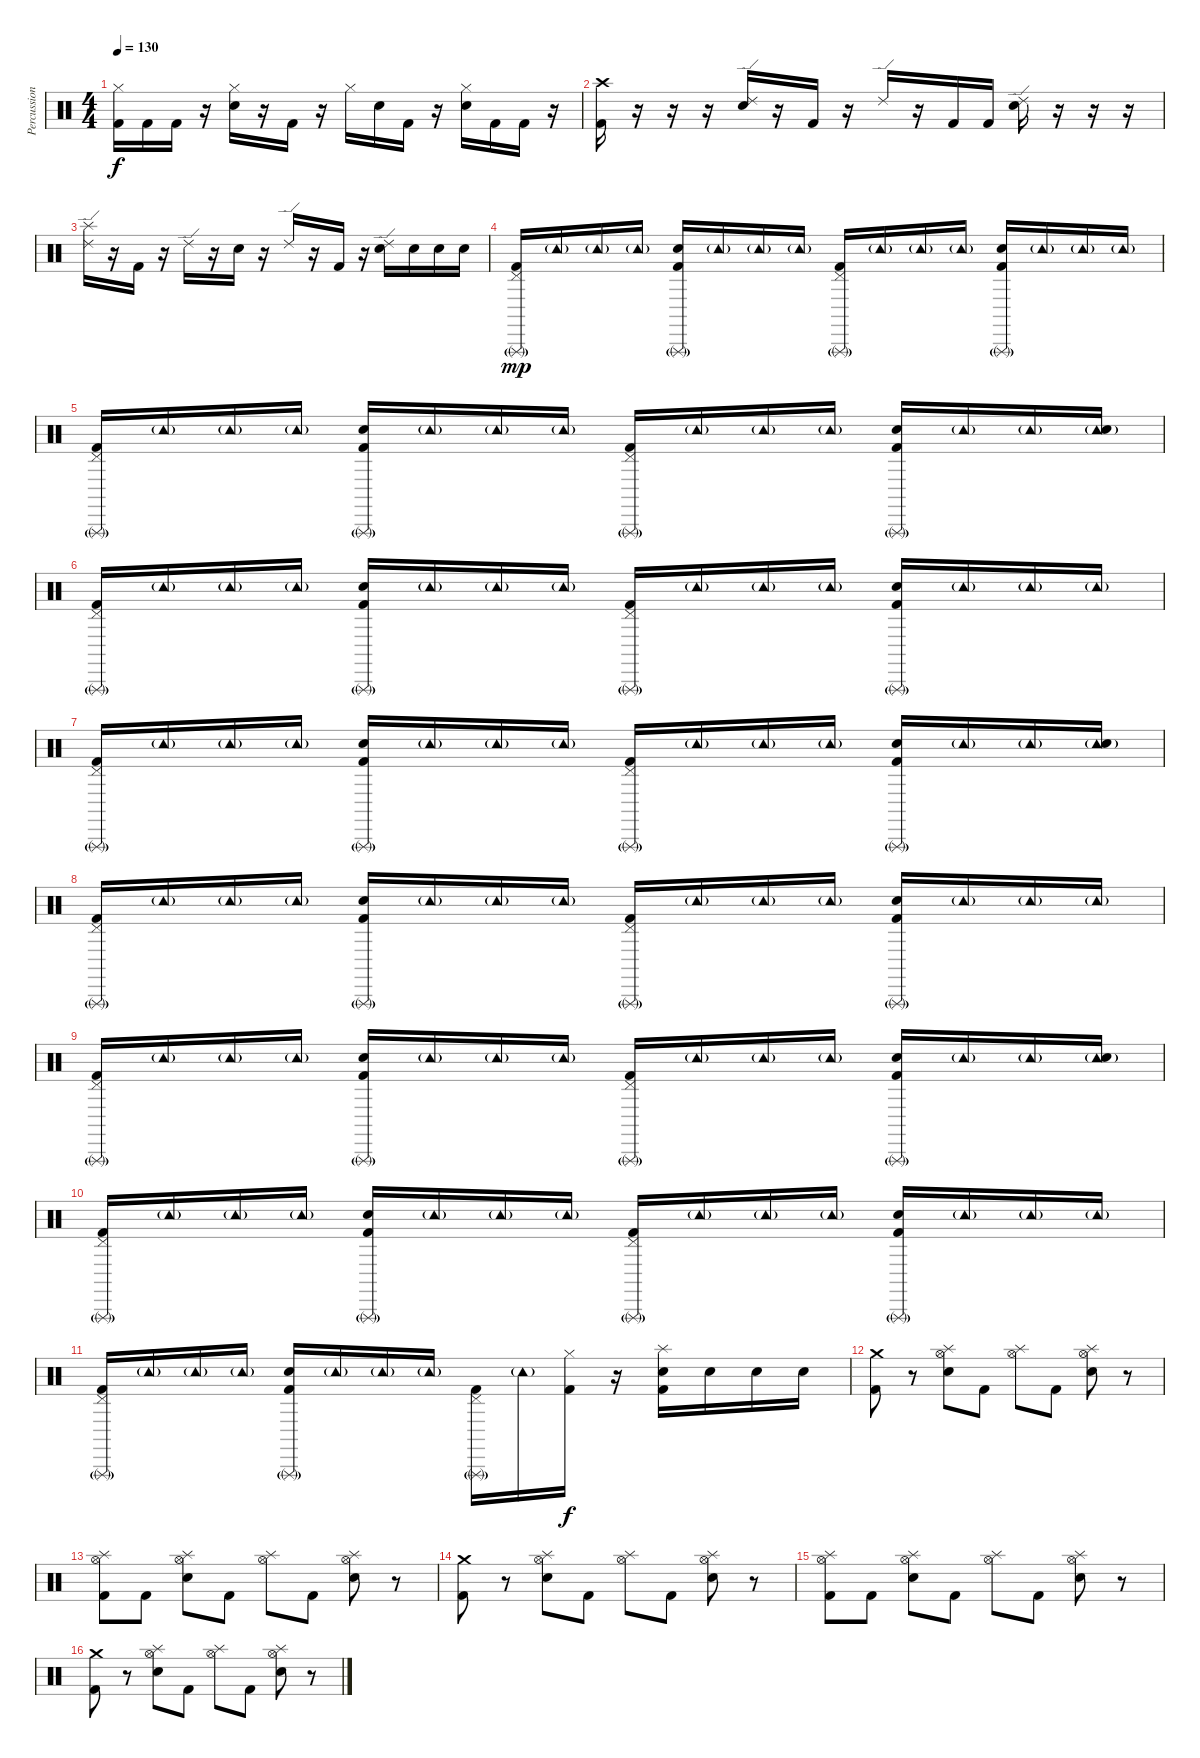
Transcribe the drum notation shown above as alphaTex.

\track ("Percussion" "Percussion") {instrument percussion}
\staff {score}
\articulation defaults
\ts (4 4)
\tempo 130
\clef neutral
\ks c
("Hi-Hat (closed)" "Kick (hit) 2").16{dy f} "Kick (hit) 2".16 "Kick (hit) 2".16 r.16 ("Hi-Hat (closed)" "Electric Snare (hit)").16 r.16 "Kick (hit) 2".16 r.16 "Hi-Hat (closed)".16 "Electric Snare (hit)".16 "Kick (hit) 2".16 r.16 ("Hi-Hat (closed)" "Electric Snare (hit)").16 "Kick (hit) 2".16 "Kick (hit) 2".16 r.16 |
("Crash high (hit)" "Kick (hit) 2").16 r.16 r.16 r.16 ("Ride (edge) 2" "Electric Snare (hit)").16 r.16 "Kick (hit) 2".16 r.16 "Ride (edge) 2".16 r.16 "Kick (hit) 2".16 "Kick (hit) 2".16 ("Ride (edge) 2" "Electric Snare (hit)").16 r.16 r.16 r.16 |
("Splash (hit)" "Ride (edge) 2").16 r.16 "Kick (hit) 2".16 r.16 "Ride (edge) 2".16 r.16 "Electric Snare (hit)".16 r.16 "Ride (edge) 2".16 r.16 "Kick (hit) 2".16 r.16 ("Ride (edge) 2" "Electric Snare (hit)").16 "Electric Snare (hit)".16 "Electric Snare (hit)".16 "Electric Snare (hit)".16 |
("Triangle (rnute)"{g} "Pedal Hi-Hat (hit)" "Kick (hit) 2").16{dy mp} "Tambourine (hit)"{g}.16 "Tambourine (hit)"{g}.16 "Tambourine (hit)"{g}.16 ("Triangle (rnute)"{g} "Electric Snare (hit)" "Kick (hit) 2").16 "Tambourine (hit)"{g}.16 "Tambourine (hit)"{g}.16 "Tambourine (hit)"{g}.16 ("Triangle (rnute)"{g} "Pedal Hi-Hat (hit)" "Kick (hit) 2").16 "Tambourine (hit)"{g}.16 "Tambourine (hit)"{g}.16 "Tambourine (hit)"{g}.16 ("Triangle (rnute)"{g} "Electric Snare (hit)" "Kick (hit) 2").16 "Tambourine (hit)"{g}.16 "Tambourine (hit)"{g}.16 "Tambourine (hit)"{g}.16 |
("Triangle (rnute)"{g} "Pedal Hi-Hat (hit)" "Kick (hit) 2").16 "Tambourine (hit)"{g}.16 "Tambourine (hit)"{g}.16 "Tambourine (hit)"{g}.16 ("Triangle (rnute)"{g} "Electric Snare (hit)" "Kick (hit) 2").16 "Tambourine (hit)"{g}.16 "Tambourine (hit)"{g}.16 "Tambourine (hit)"{g}.16 ("Triangle (rnute)"{g} "Pedal Hi-Hat (hit)" "Kick (hit) 2").16 "Tambourine (hit)"{g}.16 "Tambourine (hit)"{g}.16 "Tambourine (hit)"{g}.16 ("Triangle (rnute)"{g} "Electric Snare (hit)" "Kick (hit) 2").16 "Tambourine (hit)"{g}.16 "Tambourine (hit)"{g}.16 ("Tambourine (hit)"{g} "Electric Snare (hit)").16 |
("Triangle (rnute)"{g} "Pedal Hi-Hat (hit)" "Kick (hit) 2").16 "Tambourine (hit)"{g}.16 "Tambourine (hit)"{g}.16 "Tambourine (hit)"{g}.16 ("Triangle (rnute)"{g} "Electric Snare (hit)" "Kick (hit) 2").16 "Tambourine (hit)"{g}.16 "Tambourine (hit)"{g}.16 "Tambourine (hit)"{g}.16 ("Triangle (rnute)"{g} "Pedal Hi-Hat (hit)" "Kick (hit) 2").16 "Tambourine (hit)"{g}.16 "Tambourine (hit)"{g}.16 "Tambourine (hit)"{g}.16 ("Triangle (rnute)"{g} "Electric Snare (hit)" "Kick (hit) 2").16 "Tambourine (hit)"{g}.16 "Tambourine (hit)"{g}.16 "Tambourine (hit)"{g}.16 |
("Triangle (rnute)"{g} "Pedal Hi-Hat (hit)" "Kick (hit) 2").16 "Tambourine (hit)"{g}.16 "Tambourine (hit)"{g}.16 "Tambourine (hit)"{g}.16 ("Triangle (rnute)"{g} "Electric Snare (hit)" "Kick (hit) 2").16 "Tambourine (hit)"{g}.16 "Tambourine (hit)"{g}.16 "Tambourine (hit)"{g}.16 ("Triangle (rnute)"{g} "Pedal Hi-Hat (hit)" "Kick (hit) 2").16 "Tambourine (hit)"{g}.16 "Tambourine (hit)"{g}.16 "Tambourine (hit)"{g}.16 ("Triangle (rnute)"{g} "Electric Snare (hit)" "Kick (hit) 2").16 "Tambourine (hit)"{g}.16 "Tambourine (hit)"{g}.16 ("Tambourine (hit)"{g} "Electric Snare (hit)").16 |
("Triangle (rnute)"{g} "Pedal Hi-Hat (hit)" "Kick (hit) 2").16 "Tambourine (hit)"{g}.16 "Tambourine (hit)"{g}.16 "Tambourine (hit)"{g}.16 ("Triangle (rnute)"{g} "Electric Snare (hit)" "Kick (hit) 2").16 "Tambourine (hit)"{g}.16 "Tambourine (hit)"{g}.16 "Tambourine (hit)"{g}.16 ("Triangle (rnute)"{g} "Pedal Hi-Hat (hit)" "Kick (hit) 2").16 "Tambourine (hit)"{g}.16 "Tambourine (hit)"{g}.16 "Tambourine (hit)"{g}.16 ("Triangle (rnute)"{g} "Electric Snare (hit)" "Kick (hit) 2").16 "Tambourine (hit)"{g}.16 "Tambourine (hit)"{g}.16 "Tambourine (hit)"{g}.16 |
("Triangle (rnute)"{g} "Pedal Hi-Hat (hit)" "Kick (hit) 2").16 "Tambourine (hit)"{g}.16 "Tambourine (hit)"{g}.16 "Tambourine (hit)"{g}.16 ("Triangle (rnute)"{g} "Electric Snare (hit)" "Kick (hit) 2").16 "Tambourine (hit)"{g}.16 "Tambourine (hit)"{g}.16 "Tambourine (hit)"{g}.16 ("Triangle (rnute)"{g} "Pedal Hi-Hat (hit)" "Kick (hit) 2").16 "Tambourine (hit)"{g}.16 "Tambourine (hit)"{g}.16 "Tambourine (hit)"{g}.16 ("Triangle (rnute)"{g} "Electric Snare (hit)" "Kick (hit) 2").16 "Tambourine (hit)"{g}.16 "Tambourine (hit)"{g}.16 ("Tambourine (hit)"{g} "Electric Snare (hit)").16 |
("Triangle (rnute)"{g} "Pedal Hi-Hat (hit)" "Kick (hit) 2").16 "Tambourine (hit)"{g}.16 "Tambourine (hit)"{g}.16 "Tambourine (hit)"{g}.16 ("Triangle (rnute)"{g} "Electric Snare (hit)" "Kick (hit) 2").16 "Tambourine (hit)"{g}.16 "Tambourine (hit)"{g}.16 "Tambourine (hit)"{g}.16 ("Triangle (rnute)"{g} "Pedal Hi-Hat (hit)" "Kick (hit) 2").16 "Tambourine (hit)"{g}.16 "Tambourine (hit)"{g}.16 "Tambourine (hit)"{g}.16 ("Triangle (rnute)"{g} "Electric Snare (hit)" "Kick (hit) 2").16 "Tambourine (hit)"{g}.16 "Tambourine (hit)"{g}.16 "Tambourine (hit)"{g}.16 |
("Triangle (rnute)"{g} "Pedal Hi-Hat (hit)" "Kick (hit) 2").16 "Tambourine (hit)"{g}.16 "Tambourine (hit)"{g}.16 "Tambourine (hit)"{g}.16 ("Triangle (rnute)"{g} "Electric Snare (hit)" "Kick (hit) 2").16 "Tambourine (hit)"{g}.16 "Tambourine (hit)"{g}.16 "Tambourine (hit)"{g}.16 ("Triangle (rnute)"{g} "Pedal Hi-Hat (hit)" "Kick (hit) 2").16 "Tambourine (hit)"{g}.16 ("Hi-Hat (closed)" "Kick (hit) 2").16{dy f} r.16 ("Splash (hit)" "Electric Snare (hit)" "Kick (hit) 2").16 "Electric Snare (hit)".16 "Electric Snare (hit)".16 "Electric Snare (hit)".16 |
("Crash medium (hit)" "Kick (hit) 2").8 r.8 ("Splash (hit)" "Hi-Hat (open)" "Electric Snare (hit)").8 "Kick (hit) 2".8 ("Splash (hit)" "Hi-Hat (open)").8 "Kick (hit) 2".8 ("Splash (hit)" "Hi-Hat (open)" "Electric Snare (hit)").8 r.8 |
("Splash (hit)" "Hi-Hat (open)" "Kick (hit) 2").8 "Kick (hit) 2".8 ("Splash (hit)" "Hi-Hat (open)" "Electric Snare (hit)").8 "Kick (hit) 2".8 ("Splash (hit)" "Hi-Hat (open)").8 "Kick (hit) 2".8 ("Splash (hit)" "Hi-Hat (open)" "Electric Snare (hit)").8 r.8 |
("Crash medium (hit)" "Kick (hit) 2").8 r.8 ("Splash (hit)" "Hi-Hat (open)" "Electric Snare (hit)").8 "Kick (hit) 2".8 ("Splash (hit)" "Hi-Hat (open)").8 "Kick (hit) 2".8 ("Splash (hit)" "Hi-Hat (open)" "Electric Snare (hit)").8 r.8 |
("Splash (hit)" "Hi-Hat (open)" "Kick (hit) 2").8 "Kick (hit) 2".8 ("Splash (hit)" "Hi-Hat (open)" "Electric Snare (hit)").8 "Kick (hit) 2".8 ("Splash (hit)" "Hi-Hat (open)").8 "Kick (hit) 2".8 ("Splash (hit)" "Hi-Hat (open)" "Electric Snare (hit)").8 r.8 |
("Crash medium (hit)" "Kick (hit) 2").8 r.8 ("Splash (hit)" "Hi-Hat (open)" "Electric Snare (hit)").8 "Kick (hit) 2".8 ("Splash (hit)" "Hi-Hat (open)").8 "Kick (hit) 2".8 ("Splash (hit)" "Hi-Hat (open)" "Electric Snare (hit)").8 r.8
